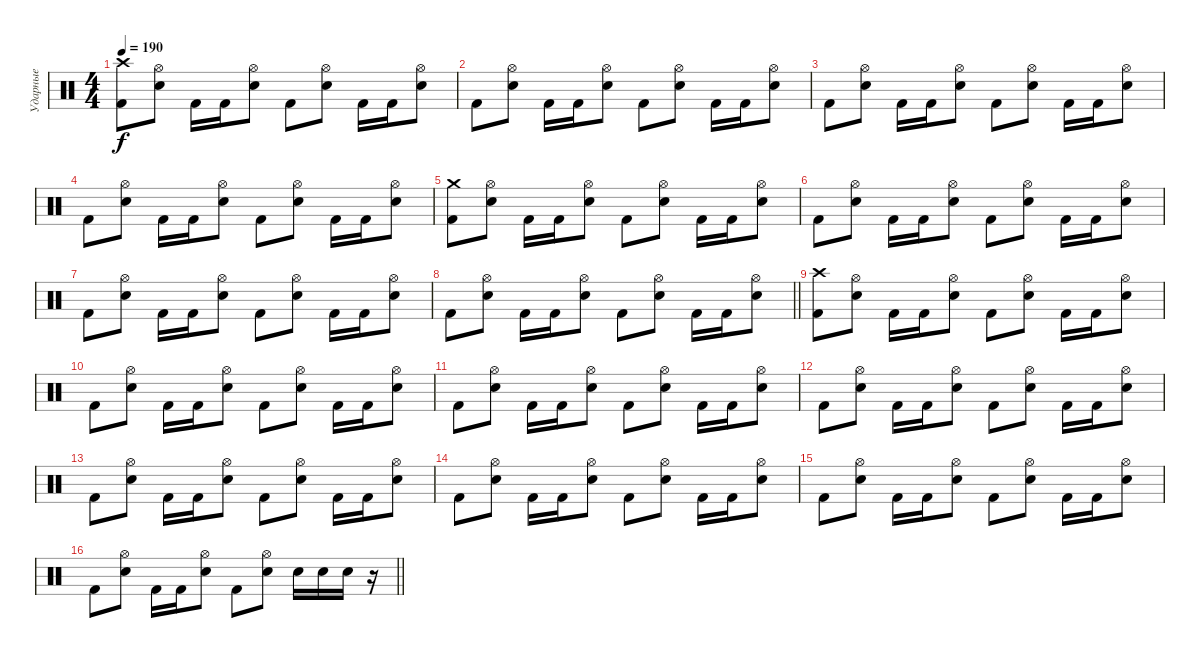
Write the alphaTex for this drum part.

\track ("Ударные" "Ударные") {instrument percussion}
\staff {score}
\articulation defaults
\ts (4 4)
\tempo 190
\clef neutral
\ks c
("Crash high (hit)" "Kick (hit) 2").8{dy f} ("Hi-Hat (open)" "Electric Snare (hit)").8 "Kick (hit) 2".16 "Kick (hit) 2".16 ("Hi-Hat (open)" "Electric Snare (hit)").8 "Kick (hit) 2".8 ("Hi-Hat (open)" "Electric Snare (hit)").8 "Kick (hit) 2".16 "Kick (hit) 2".16 ("Hi-Hat (open)" "Electric Snare (hit)").8 |
"Kick (hit) 2".8 ("Hi-Hat (open)" "Electric Snare (hit)").8 "Kick (hit) 2".16 "Kick (hit) 2".16 ("Hi-Hat (open)" "Electric Snare (hit)").8 "Kick (hit) 2".8 ("Hi-Hat (open)" "Electric Snare (hit)").8 "Kick (hit) 2".16 "Kick (hit) 2".16 ("Hi-Hat (open)" "Electric Snare (hit)").8 |
"Kick (hit) 2".8 ("Hi-Hat (open)" "Electric Snare (hit)").8 "Kick (hit) 2".16 "Kick (hit) 2".16 ("Hi-Hat (open)" "Electric Snare (hit)").8 "Kick (hit) 2".8 ("Hi-Hat (open)" "Electric Snare (hit)").8 "Kick (hit) 2".16 "Kick (hit) 2".16 ("Hi-Hat (open)" "Electric Snare (hit)").8 |
"Kick (hit) 2".8 ("Hi-Hat (open)" "Electric Snare (hit)").8 "Kick (hit) 2".16 "Kick (hit) 2".16 ("Hi-Hat (open)" "Electric Snare (hit)").8 "Kick (hit) 2".8 ("Hi-Hat (open)" "Electric Snare (hit)").8 "Kick (hit) 2".16 "Kick (hit) 2".16 ("Hi-Hat (open)" "Electric Snare (hit)").8 |
("Crash medium (hit)" "Kick (hit) 2").8 ("Hi-Hat (open)" "Electric Snare (hit)").8 "Kick (hit) 2".16 "Kick (hit) 2".16 ("Hi-Hat (open)" "Electric Snare (hit)").8 "Kick (hit) 2".8 ("Hi-Hat (open)" "Electric Snare (hit)").8 "Kick (hit) 2".16 "Kick (hit) 2".16 ("Hi-Hat (open)" "Electric Snare (hit)").8 |
"Kick (hit) 2".8 ("Hi-Hat (open)" "Electric Snare (hit)").8 "Kick (hit) 2".16 "Kick (hit) 2".16 ("Hi-Hat (open)" "Electric Snare (hit)").8 "Kick (hit) 2".8 ("Hi-Hat (open)" "Electric Snare (hit)").8 "Kick (hit) 2".16 "Kick (hit) 2".16 ("Hi-Hat (open)" "Electric Snare (hit)").8 |
"Kick (hit) 2".8 ("Hi-Hat (open)" "Electric Snare (hit)").8 "Kick (hit) 2".16 "Kick (hit) 2".16 ("Hi-Hat (open)" "Electric Snare (hit)").8 "Kick (hit) 2".8 ("Hi-Hat (open)" "Electric Snare (hit)").8 "Kick (hit) 2".16 "Kick (hit) 2".16 ("Hi-Hat (open)" "Electric Snare (hit)").8 |
\barLineRight lightlight "Kick (hit) 2".8
("Hi-Hat (open)" "Electric Snare (hit)").8 "Kick (hit) 2".16 "Kick (hit) 2".16 ("Hi-Hat (open)" "Electric Snare (hit)").8 "Kick (hit) 2".8 ("Hi-Hat (open)" "Electric Snare (hit)").8 "Kick (hit) 2".16 "Kick (hit) 2".16 ("Hi-Hat (open)" "Electric Snare (hit)").8 |
("Crash high (hit)" "Kick (hit) 2").8 ("Hi-Hat (open)" "Electric Snare (hit)").8 "Kick (hit) 2".16 "Kick (hit) 2".16 ("Hi-Hat (open)" "Electric Snare (hit)").8 "Kick (hit) 2".8 ("Hi-Hat (open)" "Electric Snare (hit)").8 "Kick (hit) 2".16 "Kick (hit) 2".16 ("Hi-Hat (open)" "Electric Snare (hit)").8 |
"Kick (hit) 2".8 ("Hi-Hat (open)" "Electric Snare (hit)").8 "Kick (hit) 2".16 "Kick (hit) 2".16 ("Hi-Hat (open)" "Electric Snare (hit)").8 "Kick (hit) 2".8 ("Hi-Hat (open)" "Electric Snare (hit)").8 "Kick (hit) 2".16 "Kick (hit) 2".16 ("Hi-Hat (open)" "Electric Snare (hit)").8 |
"Kick (hit) 2".8 ("Hi-Hat (open)" "Electric Snare (hit)").8 "Kick (hit) 2".16 "Kick (hit) 2".16 ("Hi-Hat (open)" "Electric Snare (hit)").8 "Kick (hit) 2".8 ("Hi-Hat (open)" "Electric Snare (hit)").8 "Kick (hit) 2".16 "Kick (hit) 2".16 ("Hi-Hat (open)" "Electric Snare (hit)").8 |
"Kick (hit) 2".8 ("Hi-Hat (open)" "Electric Snare (hit)").8 "Kick (hit) 2".16 "Kick (hit) 2".16 ("Hi-Hat (open)" "Electric Snare (hit)").8 "Kick (hit) 2".8 ("Hi-Hat (open)" "Electric Snare (hit)").8 "Kick (hit) 2".16 "Kick (hit) 2".16 ("Hi-Hat (open)" "Electric Snare (hit)").8 |
"Kick (hit) 2".8 ("Hi-Hat (open)" "Electric Snare (hit)").8 "Kick (hit) 2".16 "Kick (hit) 2".16 ("Hi-Hat (open)" "Electric Snare (hit)").8 "Kick (hit) 2".8 ("Hi-Hat (open)" "Electric Snare (hit)").8 "Kick (hit) 2".16 "Kick (hit) 2".16 ("Hi-Hat (open)" "Electric Snare (hit)").8 |
"Kick (hit) 2".8 ("Hi-Hat (open)" "Electric Snare (hit)").8 "Kick (hit) 2".16 "Kick (hit) 2".16 ("Hi-Hat (open)" "Electric Snare (hit)").8 "Kick (hit) 2".8 ("Hi-Hat (open)" "Electric Snare (hit)").8 "Kick (hit) 2".16 "Kick (hit) 2".16 ("Hi-Hat (open)" "Electric Snare (hit)").8 |
"Kick (hit) 2".8 ("Hi-Hat (open)" "Electric Snare (hit)").8 "Kick (hit) 2".16 "Kick (hit) 2".16 ("Hi-Hat (open)" "Electric Snare (hit)").8 "Kick (hit) 2".8 ("Hi-Hat (open)" "Electric Snare (hit)").8 "Kick (hit) 2".16 "Kick (hit) 2".16 ("Hi-Hat (open)" "Electric Snare (hit)").8 |
\barLineRight lightlight "Kick (hit) 2".8
("Hi-Hat (open)" "Electric Snare (hit)").8 "Kick (hit) 2".16 "Kick (hit) 2".16 ("Hi-Hat (open)" "Electric Snare (hit)").8 "Kick (hit) 2".8 ("Hi-Hat (open)" "Electric Snare (hit)").8 "Electric Snare (hit)".16 "Electric Snare (hit)".16 "Electric Snare (hit)".16 r.16
